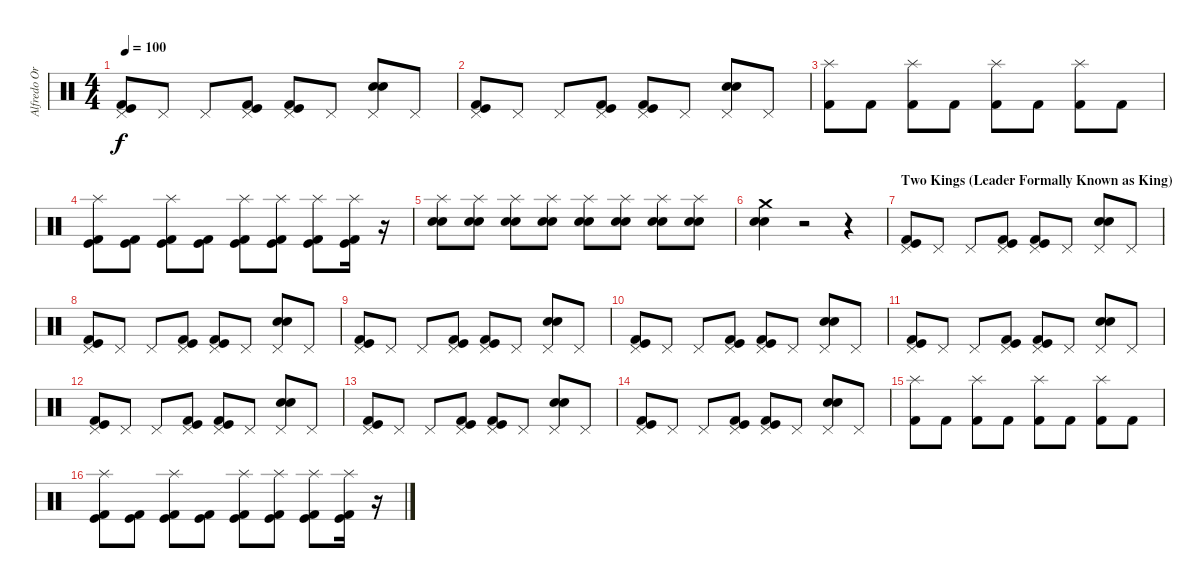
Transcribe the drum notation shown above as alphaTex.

\track ("Alfredo Ortiz (Drums)" "Alfredo Or") {instrument percussion}
\staff {score}
\articulation defaults
\ts (4 4)
\tempo 100
\clef neutral
\ks c
("Kick (hit) 2" "Kick (hit)" "Pedal Hi-Hat (hit)").8{dy f} "Pedal Hi-Hat (hit)".8 "Pedal Hi-Hat (hit)".8 ("Kick (hit) 2" "Kick (hit)" "Pedal Hi-Hat (hit)").8 ("Kick (hit) 2" "Kick (hit)" "Pedal Hi-Hat (hit)").8 "Pedal Hi-Hat (hit)".8 ("Snare (hit) 2" "Electric Snare (hit)" "Pedal Hi-Hat (hit)").8 "Pedal Hi-Hat (hit)".8 |
("Kick (hit) 2" "Kick (hit)" "Pedal Hi-Hat (hit)").8 "Pedal Hi-Hat (hit)".8 "Pedal Hi-Hat (hit)".8 ("Kick (hit) 2" "Kick (hit)" "Pedal Hi-Hat (hit)").8 ("Kick (hit) 2" "Kick (hit)" "Pedal Hi-Hat (hit)").8 "Pedal Hi-Hat (hit)".8 ("Snare (hit) 2" "Electric Snare (hit)" "Pedal Hi-Hat (hit)").8 "Pedal Hi-Hat (hit)".8 |
("Kick (hit) 2" "Splash (hit)").8 "Kick (hit) 2".8 ("Kick (hit) 2" "Splash (hit)").8 "Kick (hit) 2".8 ("Kick (hit) 2" "Splash (hit)").8 "Kick (hit) 2".8 ("Kick (hit) 2" "Splash (hit)").8 "Kick (hit) 2".8 |
("Kick (hit) 2" "Kick (hit)" "Splash (hit)").8 ("Kick (hit) 2" "Kick (hit)").8 ("Kick (hit) 2" "Kick (hit)" "Splash (hit)").8 ("Kick (hit) 2" "Kick (hit)").8 ("Kick (hit) 2" "Kick (hit)" "Splash (hit)").8 ("Kick (hit) 2" "Kick (hit)" "Splash (hit)").8 ("Kick (hit) 2" "Kick (hit)" "Splash (hit)").8 ("Kick (hit) 2" "Kick (hit)" "Splash (hit)").16 r.16{volume 8} |
("Snare (hit) 2" "Electric Snare (hit)" "Splash (hit)").8{volume 11} ("Snare (hit) 2" "Electric Snare (hit)" "Splash (hit)").8 ("Snare (hit) 2" "Electric Snare (hit)" "Splash (hit)").8 ("Snare (hit) 2" "Electric Snare (hit)" "Splash (hit)").8 ("Snare (hit) 2" "Electric Snare (hit)" "Splash (hit)").8 ("Snare (hit) 2" "Electric Snare (hit)" "Splash (hit)").8 ("Snare (hit) 2" "Electric Snare (hit)" "Splash (hit)").8 ("Snare (hit) 2" "Electric Snare (hit)" "Splash (hit)").8 |
("Snare (hit) 2" "Electric Snare (hit)" "Crash medium (hit)").4 r.2 r.4 |
\section ("" "Two Kings (Leader Formally Known as King)")
("Kick (hit) 2" "Kick (hit)" "Pedal Hi-Hat (hit)").8 "Pedal Hi-Hat (hit)".8 "Pedal Hi-Hat (hit)".8 ("Kick (hit) 2" "Kick (hit)" "Pedal Hi-Hat (hit)").8 ("Kick (hit) 2" "Kick (hit)" "Pedal Hi-Hat (hit)").8 "Pedal Hi-Hat (hit)".8 ("Snare (hit) 2" "Electric Snare (hit)" "Pedal Hi-Hat (hit)").8 "Pedal Hi-Hat (hit)".8 |
("Kick (hit) 2" "Kick (hit)" "Pedal Hi-Hat (hit)").8 "Pedal Hi-Hat (hit)".8 "Pedal Hi-Hat (hit)".8 ("Kick (hit) 2" "Kick (hit)" "Pedal Hi-Hat (hit)").8 ("Kick (hit) 2" "Kick (hit)" "Pedal Hi-Hat (hit)").8 "Pedal Hi-Hat (hit)".8 ("Snare (hit) 2" "Electric Snare (hit)" "Pedal Hi-Hat (hit)").8 "Pedal Hi-Hat (hit)".8 |
("Kick (hit) 2" "Kick (hit)" "Pedal Hi-Hat (hit)").8 "Pedal Hi-Hat (hit)".8 "Pedal Hi-Hat (hit)".8 ("Kick (hit) 2" "Kick (hit)" "Pedal Hi-Hat (hit)").8 ("Kick (hit) 2" "Kick (hit)" "Pedal Hi-Hat (hit)").8 "Pedal Hi-Hat (hit)".8 ("Snare (hit) 2" "Electric Snare (hit)" "Pedal Hi-Hat (hit)").8 "Pedal Hi-Hat (hit)".8 |
("Kick (hit) 2" "Kick (hit)" "Pedal Hi-Hat (hit)").8 "Pedal Hi-Hat (hit)".8 "Pedal Hi-Hat (hit)".8 ("Kick (hit) 2" "Kick (hit)" "Pedal Hi-Hat (hit)").8 ("Kick (hit) 2" "Kick (hit)" "Pedal Hi-Hat (hit)").8 "Pedal Hi-Hat (hit)".8 ("Snare (hit) 2" "Electric Snare (hit)" "Pedal Hi-Hat (hit)").8 "Pedal Hi-Hat (hit)".8 |
("Kick (hit) 2" "Kick (hit)" "Pedal Hi-Hat (hit)").8 "Pedal Hi-Hat (hit)".8 "Pedal Hi-Hat (hit)".8 ("Kick (hit) 2" "Kick (hit)" "Pedal Hi-Hat (hit)").8 ("Kick (hit) 2" "Kick (hit)" "Pedal Hi-Hat (hit)").8 "Pedal Hi-Hat (hit)".8 ("Snare (hit) 2" "Electric Snare (hit)" "Pedal Hi-Hat (hit)").8 "Pedal Hi-Hat (hit)".8 |
("Kick (hit) 2" "Kick (hit)" "Pedal Hi-Hat (hit)").8 "Pedal Hi-Hat (hit)".8 "Pedal Hi-Hat (hit)".8 ("Kick (hit) 2" "Kick (hit)" "Pedal Hi-Hat (hit)").8 ("Kick (hit) 2" "Kick (hit)" "Pedal Hi-Hat (hit)").8 "Pedal Hi-Hat (hit)".8 ("Snare (hit) 2" "Electric Snare (hit)" "Pedal Hi-Hat (hit)").8 "Pedal Hi-Hat (hit)".8 |
("Kick (hit) 2" "Kick (hit)" "Pedal Hi-Hat (hit)").8 "Pedal Hi-Hat (hit)".8 "Pedal Hi-Hat (hit)".8 ("Kick (hit) 2" "Kick (hit)" "Pedal Hi-Hat (hit)").8 ("Kick (hit) 2" "Kick (hit)" "Pedal Hi-Hat (hit)").8 "Pedal Hi-Hat (hit)".8 ("Snare (hit) 2" "Electric Snare (hit)" "Pedal Hi-Hat (hit)").8 "Pedal Hi-Hat (hit)".8 |
("Kick (hit) 2" "Kick (hit)" "Pedal Hi-Hat (hit)").8 "Pedal Hi-Hat (hit)".8 "Pedal Hi-Hat (hit)".8 ("Kick (hit) 2" "Kick (hit)" "Pedal Hi-Hat (hit)").8 ("Kick (hit) 2" "Kick (hit)" "Pedal Hi-Hat (hit)").8 "Pedal Hi-Hat (hit)".8 ("Snare (hit) 2" "Electric Snare (hit)" "Pedal Hi-Hat (hit)").8 "Pedal Hi-Hat (hit)".8 |
("Kick (hit) 2" "Splash (hit)").8 "Kick (hit) 2".8 ("Kick (hit) 2" "Splash (hit)").8 "Kick (hit) 2".8 ("Kick (hit) 2" "Splash (hit)").8 "Kick (hit) 2".8 ("Kick (hit) 2" "Splash (hit)").8 "Kick (hit) 2".8 |
("Kick (hit) 2" "Kick (hit)" "Splash (hit)").8 ("Kick (hit) 2" "Kick (hit)").8 ("Kick (hit) 2" "Kick (hit)" "Splash (hit)").8 ("Kick (hit) 2" "Kick (hit)").8 ("Kick (hit) 2" "Kick (hit)" "Splash (hit)").8 ("Kick (hit) 2" "Kick (hit)" "Splash (hit)").8 ("Kick (hit) 2" "Kick (hit)" "Splash (hit)").8 ("Kick (hit) 2" "Kick (hit)" "Splash (hit)").16 r.16{volume 8}
